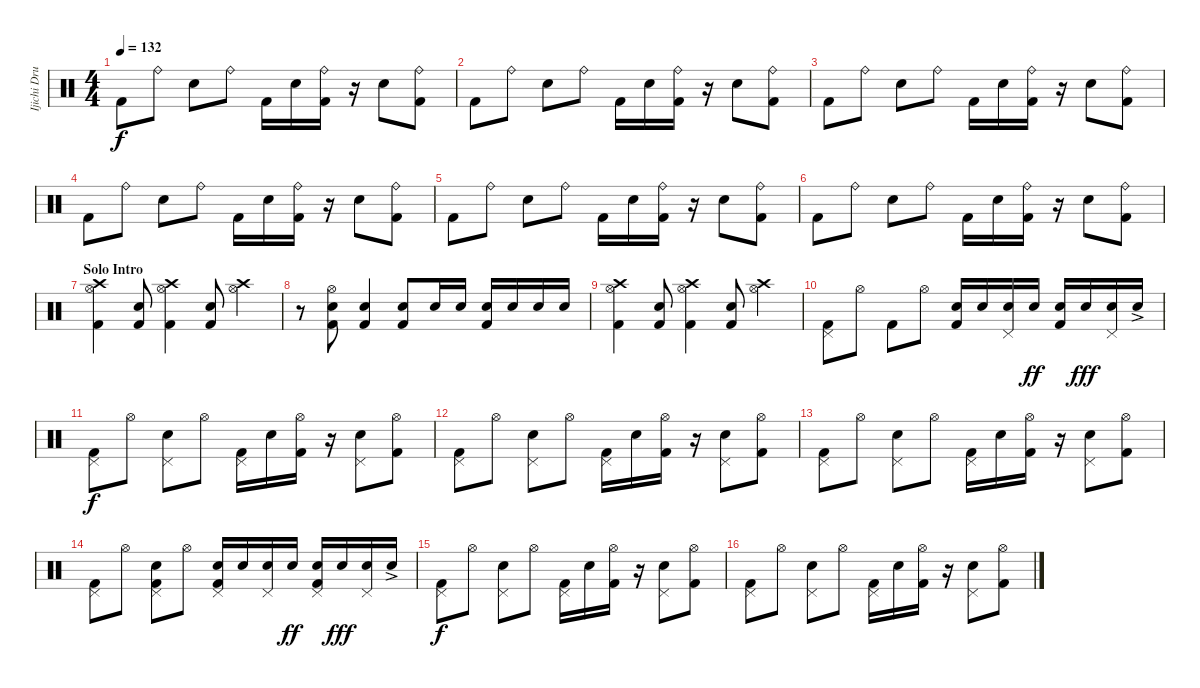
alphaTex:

\track ("Ijichi Drums" "Ijichi Dru") {instrument percussion}
\staff {score}
\articulation defaults
\ts (4 4)
\tempo 132
\clef neutral
\ks c "Kick (hit) 2".8{dy f} "Ride (bell)".8 "Snare (hit) 2".8 "Ride (bell)".8 "Kick (hit) 2".16 "Snare (hit) 2".16
("Ride (bell)" "Kick (hit) 2").16 r.16 "Snare (hit) 2".8 ("Ride (bell)" "Kick (hit) 2").8 |
"Kick (hit) 2".8 "Ride (bell)".8 "Snare (hit) 2".8 "Ride (bell)".8 "Kick (hit) 2".16 "Snare (hit) 2".16 ("Ride (bell)" "Kick (hit) 2").16 r.16 "Snare (hit) 2".8 ("Ride (bell)" "Kick (hit) 2").8 |
"Kick (hit) 2".8 "Ride (bell)".8 "Snare (hit) 2".8 "Ride (bell)".8 "Kick (hit) 2".16 "Snare (hit) 2".16 ("Ride (bell)" "Kick (hit) 2").16 r.16 "Snare (hit) 2".8 ("Ride (bell)" "Kick (hit) 2").8 |
"Kick (hit) 2".8 "Ride (bell)".8 "Snare (hit) 2".8 "Ride (bell)".8 "Kick (hit) 2".16 "Snare (hit) 2".16 ("Ride (bell)" "Kick (hit) 2").16 r.16 "Snare (hit) 2".8 ("Ride (bell)" "Kick (hit) 2").8 |
"Kick (hit) 2".8 "Ride (bell)".8 "Snare (hit) 2".8 "Ride (bell)".8 "Kick (hit) 2".16 "Snare (hit) 2".16 ("Ride (bell)" "Kick (hit) 2").16 r.16 "Snare (hit) 2".8 ("Ride (bell)" "Kick (hit) 2").8 |
"Kick (hit) 2".8 "Ride (bell)".8 "Snare (hit) 2".8 "Ride (bell)".8 "Kick (hit) 2".16 "Snare (hit) 2".16 ("Ride (bell)" "Kick (hit) 2").16 r.16 "Snare (hit) 2".8 ("Ride (bell)" "Kick (hit) 2").8 |
\section ("" "Solo Intro")
("Hi-Hat (open)" "Crash high (hit)" "Kick (hit) 2").4 ("Snare (hit) 2" "Kick (hit) 2").8 ("Hi-Hat (open)" "Crash high (hit)" "Kick (hit) 2").4 ("Snare (hit) 2" "Kick (hit) 2").8 ("Hi-Hat (open)" "Crash high (hit)").4 |
r.8 ("Hi-Hat (open)" "Snare (hit) 2" "Kick (hit) 2").8 ("Snare (hit) 2" "Kick (hit) 2").4 ("Snare (hit) 2" "Kick (hit) 2").8 "Snare (hit) 2".16 "Snare (hit) 2".16 ("Snare (hit) 2" "Kick (hit) 2").16 "Snare (hit) 2".16 "Snare (hit) 2".16 "Snare (hit) 2".16 |
("Hi-Hat (open)" "Crash high (hit)" "Kick (hit) 2").4 ("Snare (hit) 2" "Kick (hit) 2").8 ("Hi-Hat (open)" "Crash high (hit)" "Kick (hit) 2").4 ("Snare (hit) 2" "Kick (hit) 2").8 ("Hi-Hat (open)" "Crash high (hit)").4 |
("Pedal Hi-Hat (hit)" "Kick (hit) 2").8 "Hi-Hat (open)".8 "Kick (hit) 2".8 "Hi-Hat (open)".8 ("Snare (hit) 2" "Kick (hit) 2").16 "Snare (hit) 2".16 ("Pedal Hi-Hat (hit)" "Snare (hit) 2").16 "Snare (hit) 2".16{dy ff} ("Snare (hit) 2" "Kick (hit) 2").16 "Snare (hit) 2".16{dy fff} ("Pedal Hi-Hat (hit)" "Snare (hit) 2").16 "Snare (hit) 2"{ac}.16 |
("Pedal Hi-Hat (hit)" "Kick (hit) 2").8{dy f} "Hi-Hat (open)".8 ("Pedal Hi-Hat (hit)" "Snare (hit) 2").8 "Hi-Hat (open)".8 ("Pedal Hi-Hat (hit)" "Kick (hit) 2").16 "Snare (hit) 2".16 ("Hi-Hat (open)" "Kick (hit) 2").16 r.16 ("Pedal Hi-Hat (hit)" "Snare (hit) 2").8 ("Hi-Hat (open)" "Kick (hit) 2").8 |
("Pedal Hi-Hat (hit)" "Kick (hit) 2").8 "Hi-Hat (open)".8 ("Pedal Hi-Hat (hit)" "Snare (hit) 2").8 "Hi-Hat (open)".8 ("Pedal Hi-Hat (hit)" "Kick (hit) 2").16 "Snare (hit) 2".16 ("Hi-Hat (open)" "Kick (hit) 2").16 r.16 ("Pedal Hi-Hat (hit)" "Snare (hit) 2").8 ("Hi-Hat (open)" "Kick (hit) 2").8 |
("Pedal Hi-Hat (hit)" "Kick (hit) 2").8 "Hi-Hat (open)".8 ("Pedal Hi-Hat (hit)" "Snare (hit) 2").8 "Hi-Hat (open)".8 ("Pedal Hi-Hat (hit)" "Kick (hit) 2").16 "Snare (hit) 2".16 ("Hi-Hat (open)" "Kick (hit) 2").16 r.16 ("Pedal Hi-Hat (hit)" "Snare (hit) 2").8 ("Hi-Hat (open)" "Kick (hit) 2").8 |
("Pedal Hi-Hat (hit)" "Kick (hit) 2").8 "Hi-Hat (open)".8 ("Pedal Hi-Hat (hit)" "Snare (hit) 2" "Kick (hit) 2").8 "Hi-Hat (open)".8 ("Pedal Hi-Hat (hit)" "Snare (hit) 2" "Kick (hit) 2").16 "Snare (hit) 2".16 ("Pedal Hi-Hat (hit)" "Snare (hit) 2").16 "Snare (hit) 2".16{dy ff} ("Pedal Hi-Hat (hit)" "Snare (hit) 2" "Kick (hit) 2").16 "Snare (hit) 2".16{dy fff} ("Pedal Hi-Hat (hit)" "Snare (hit) 2").16 "Snare (hit) 2"{ac}.16 |
("Pedal Hi-Hat (hit)" "Kick (hit) 2").8{dy f} "Hi-Hat (open)".8 ("Pedal Hi-Hat (hit)" "Snare (hit) 2").8 "Hi-Hat (open)".8 ("Pedal Hi-Hat (hit)" "Kick (hit) 2").16 "Snare (hit) 2".16 ("Hi-Hat (open)" "Kick (hit) 2").16 r.16 ("Pedal Hi-Hat (hit)" "Snare (hit) 2").8 ("Hi-Hat (open)" "Kick (hit) 2").8 |
("Pedal Hi-Hat (hit)" "Kick (hit) 2").8 "Hi-Hat (open)".8 ("Pedal Hi-Hat (hit)" "Snare (hit) 2").8 "Hi-Hat (open)".8 ("Pedal Hi-Hat (hit)" "Kick (hit) 2").16 "Snare (hit) 2".16 ("Hi-Hat (open)" "Kick (hit) 2").16 r.16 ("Pedal Hi-Hat (hit)" "Snare (hit) 2").8 ("Hi-Hat (open)" "Kick (hit) 2").8
